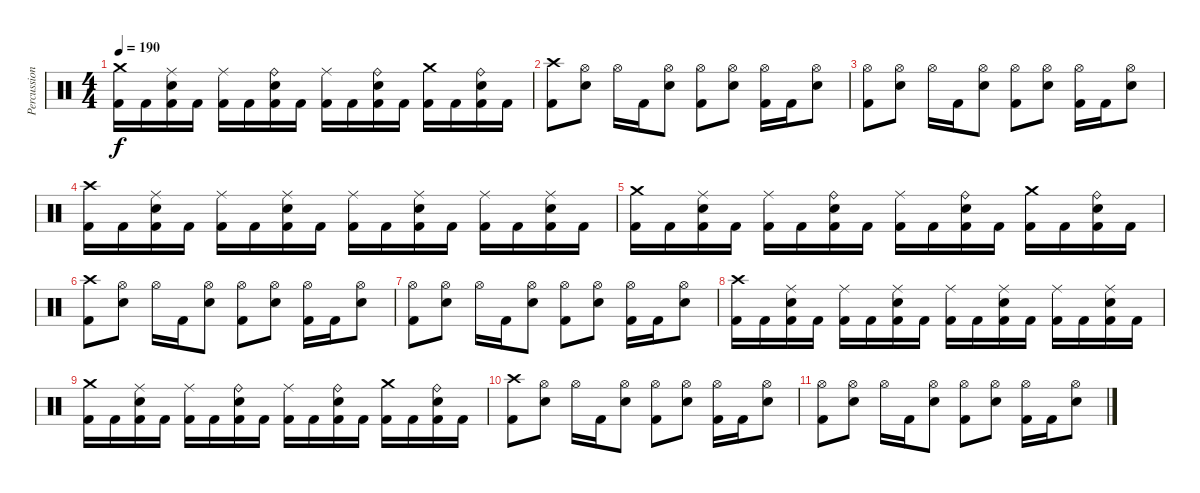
\track ("Percussion" "Percussion") {instrument percussion}
\staff {score}
\articulation defaults
\ts (4 4)
\tempo 190
\clef neutral
\ks c
("Crash medium (hit)" "Kick (hit) 2").16{dy f volume 12} "Kick (hit) 2".16 ("Ride (middle)" "Snare (hit) 2" "Kick (hit) 2").16 "Kick (hit) 2".16 ("Ride (middle)" "Kick (hit) 2").16 "Kick (hit) 2".16 ("Ride (bell)" "Snare (hit) 2" "Kick (hit) 2").16 "Kick (hit) 2".16 ("Ride (middle)" "Kick (hit) 2").16 "Kick (hit) 2".16 ("Ride (bell)" "Snare (hit) 2" "Kick (hit) 2").16 "Kick (hit) 2".16 ("Crash medium (hit)" "Kick (hit) 2").16 "Kick (hit) 2".16 ("Ride (bell)" "Snare (hit) 2" "Kick (hit) 2").16 "Kick (hit) 2".16 |
("Crash high (hit)" "Kick (hit) 2").8{volume 12} ("Hi-Hat (open)" "Snare (hit) 2").8 "Hi-Hat (open)".16 "Kick (hit) 2".16 ("Hi-Hat (open)" "Snare (hit) 2").8 ("Hi-Hat (open)" "Kick (hit) 2").8 ("Hi-Hat (open)" "Snare (hit) 2").8 ("Hi-Hat (open)" "Kick (hit) 2").16 "Kick (hit) 2".16 ("Hi-Hat (open)" "Snare (hit) 2").8 |
("Hi-Hat (open)" "Kick (hit) 2").8{volume 11} ("Hi-Hat (open)" "Snare (hit) 2").8 "Hi-Hat (open)".16 "Kick (hit) 2".16 ("Hi-Hat (open)" "Snare (hit) 2").8 ("Hi-Hat (open)" "Kick (hit) 2").8 ("Hi-Hat (open)" "Snare (hit) 2").8 ("Hi-Hat (open)" "Kick (hit) 2").16 "Kick (hit) 2".16 ("Hi-Hat (open)" "Snare (hit) 2").8 |
("Crash high (hit)" "Kick (hit) 2").16{volume 10} "Kick (hit) 2".16 ("Ride (middle)" "Snare (hit) 2" "Kick (hit) 2").16 "Kick (hit) 2".16 ("Ride (middle)" "Kick (hit) 2").16 "Kick (hit) 2".16 ("Ride (middle)" "Snare (hit) 2" "Kick (hit) 2").16 "Kick (hit) 2".16 ("Ride (middle)" "Kick (hit) 2").16 "Kick (hit) 2".16 ("Ride (middle)" "Snare (hit) 2" "Kick (hit) 2").16 "Kick (hit) 2".16 ("Ride (middle)" "Kick (hit) 2").16 "Kick (hit) 2".16 ("Ride (middle)" "Snare (hit) 2" "Kick (hit) 2").16 "Kick (hit) 2".16 |
("Crash medium (hit)" "Kick (hit) 2").16{volume 9} "Kick (hit) 2".16 ("Ride (middle)" "Snare (hit) 2" "Kick (hit) 2").16 "Kick (hit) 2".16 ("Ride (middle)" "Kick (hit) 2").16 "Kick (hit) 2".16 ("Ride (bell)" "Snare (hit) 2" "Kick (hit) 2").16 "Kick (hit) 2".16 ("Ride (middle)" "Kick (hit) 2").16 "Kick (hit) 2".16 ("Ride (bell)" "Snare (hit) 2" "Kick (hit) 2").16 "Kick (hit) 2".16 ("Crash medium (hit)" "Kick (hit) 2").16 "Kick (hit) 2".16 ("Ride (bell)" "Snare (hit) 2" "Kick (hit) 2").16 "Kick (hit) 2".16 |
("Crash high (hit)" "Kick (hit) 2").8{volume 7} ("Hi-Hat (open)" "Snare (hit) 2").8 "Hi-Hat (open)".16 "Kick (hit) 2".16 ("Hi-Hat (open)" "Snare (hit) 2").8 ("Hi-Hat (open)" "Kick (hit) 2").8 ("Hi-Hat (open)" "Snare (hit) 2").8 ("Hi-Hat (open)" "Kick (hit) 2").16 "Kick (hit) 2".16 ("Hi-Hat (open)" "Snare (hit) 2").8 |
("Hi-Hat (open)" "Kick (hit) 2").8{volume 6} ("Hi-Hat (open)" "Snare (hit) 2").8 "Hi-Hat (open)".16 "Kick (hit) 2".16 ("Hi-Hat (open)" "Snare (hit) 2").8 ("Hi-Hat (open)" "Kick (hit) 2").8 ("Hi-Hat (open)" "Snare (hit) 2").8 ("Hi-Hat (open)" "Kick (hit) 2").16 "Kick (hit) 2".16 ("Hi-Hat (open)" "Snare (hit) 2").8 |
("Crash high (hit)" "Kick (hit) 2").16{volume 5} "Kick (hit) 2".16 ("Ride (middle)" "Snare (hit) 2" "Kick (hit) 2").16 "Kick (hit) 2".16 ("Ride (middle)" "Kick (hit) 2").16 "Kick (hit) 2".16 ("Ride (middle)" "Snare (hit) 2" "Kick (hit) 2").16 "Kick (hit) 2".16 ("Ride (middle)" "Kick (hit) 2").16 "Kick (hit) 2".16 ("Ride (middle)" "Snare (hit) 2" "Kick (hit) 2").16 "Kick (hit) 2".16 ("Ride (middle)" "Kick (hit) 2").16 "Kick (hit) 2".16 ("Ride (middle)" "Snare (hit) 2" "Kick (hit) 2").16 "Kick (hit) 2".16 |
("Crash medium (hit)" "Kick (hit) 2").16{volume 4} "Kick (hit) 2".16 ("Ride (middle)" "Snare (hit) 2" "Kick (hit) 2").16 "Kick (hit) 2".16 ("Ride (middle)" "Kick (hit) 2").16 "Kick (hit) 2".16 ("Ride (bell)" "Snare (hit) 2" "Kick (hit) 2").16 "Kick (hit) 2".16 ("Ride (middle)" "Kick (hit) 2").16 "Kick (hit) 2".16 ("Ride (bell)" "Snare (hit) 2" "Kick (hit) 2").16 "Kick (hit) 2".16 ("Crash medium (hit)" "Kick (hit) 2").16 "Kick (hit) 2".16 ("Ride (bell)" "Snare (hit) 2" "Kick (hit) 2").16 "Kick (hit) 2".16 |
("Crash high (hit)" "Kick (hit) 2").8 ("Hi-Hat (open)" "Snare (hit) 2").8{volume 3} "Hi-Hat (open)".16 "Kick (hit) 2".16 ("Hi-Hat (open)" "Snare (hit) 2").8 ("Hi-Hat (open)" "Kick (hit) 2").8 ("Hi-Hat (open)" "Snare (hit) 2").8 ("Hi-Hat (open)" "Kick (hit) 2").16 "Kick (hit) 2".16 ("Hi-Hat (open)" "Snare (hit) 2").8 |
("Hi-Hat (open)" "Kick (hit) 2").8{volume 2} ("Hi-Hat (open)" "Snare (hit) 2").8 "Hi-Hat (open)".16 "Kick (hit) 2".16 ("Hi-Hat (open)" "Snare (hit) 2").8 ("Hi-Hat (open)" "Kick (hit) 2").8 ("Hi-Hat (open)" "Snare (hit) 2").8 ("Hi-Hat (open)" "Kick (hit) 2").16{volume 1} "Kick (hit) 2".16 ("Hi-Hat (open)" "Snare (hit) 2").8
